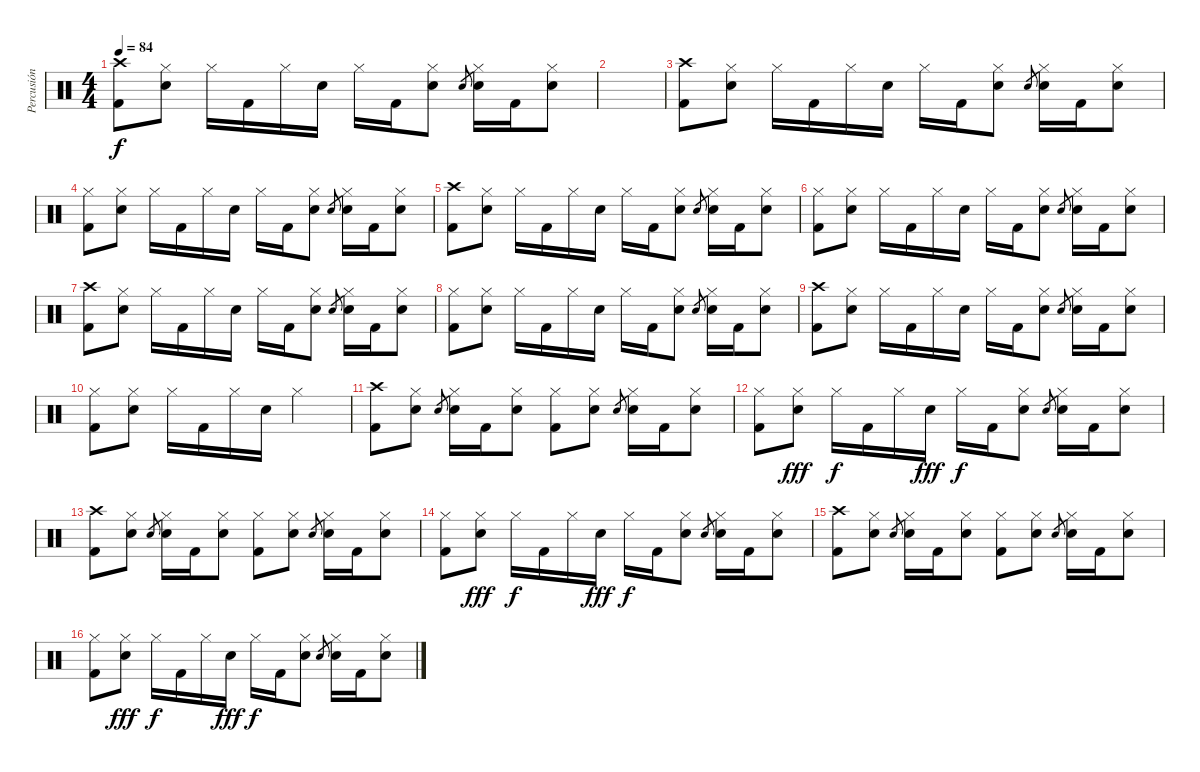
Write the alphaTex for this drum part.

\track ("Percusión" "Percusión") {instrument percussion}
\staff {score}
\articulation defaults
\ts (4 4)
\tempo 84
\clef neutral
\ks c
("Kick (hit) 2" "Crash high (hit)").8{dy f} ("Electric Snare (hit)" "Hi-Hat (closed)").8 "Hi-Hat (closed)".16 "Kick (hit) 2".16 "Hi-Hat (closed)".16 "Electric Snare (hit)".16 "Hi-Hat (closed)".16 "Kick (hit) 2".16 ("Electric Snare (hit)" "Hi-Hat (closed)").8 "Electric Snare (hit)".8{gr} ("Electric Snare (hit)" "Hi-Hat (closed)").16 "Kick (hit) 2".16 ("Electric Snare (hit)" "Hi-Hat (closed)").8 |
|
("Kick (hit) 2" "Crash high (hit)").8 ("Electric Snare (hit)" "Hi-Hat (closed)").8 "Hi-Hat (closed)".16 "Kick (hit) 2".16 "Hi-Hat (closed)".16 "Electric Snare (hit)".16 "Hi-Hat (closed)".16 "Kick (hit) 2".16 ("Electric Snare (hit)" "Hi-Hat (closed)").8 "Electric Snare (hit)".8{gr} ("Electric Snare (hit)" "Hi-Hat (closed)").16 "Kick (hit) 2".16 ("Electric Snare (hit)" "Hi-Hat (closed)").8 |
("Kick (hit) 2" "Hi-Hat (closed)").8 ("Electric Snare (hit)" "Hi-Hat (closed)").8 "Hi-Hat (closed)".16 "Kick (hit) 2".16 "Hi-Hat (closed)".16 "Electric Snare (hit)".16 "Hi-Hat (closed)".16 "Kick (hit) 2".16 ("Electric Snare (hit)" "Hi-Hat (closed)").8 "Electric Snare (hit)".8{gr} ("Electric Snare (hit)" "Hi-Hat (closed)").16 "Kick (hit) 2".16 ("Electric Snare (hit)" "Hi-Hat (closed)").8 |
("Kick (hit) 2" "Crash high (hit)").8 ("Electric Snare (hit)" "Hi-Hat (closed)").8 "Hi-Hat (closed)".16 "Kick (hit) 2".16 "Hi-Hat (closed)".16 "Electric Snare (hit)".16 "Hi-Hat (closed)".16 "Kick (hit) 2".16 ("Electric Snare (hit)" "Hi-Hat (closed)").8 "Electric Snare (hit)".8{gr} ("Electric Snare (hit)" "Hi-Hat (closed)").16 "Kick (hit) 2".16 ("Electric Snare (hit)" "Hi-Hat (closed)").8 |
("Kick (hit) 2" "Hi-Hat (closed)").8 ("Electric Snare (hit)" "Hi-Hat (closed)").8 "Hi-Hat (closed)".16 "Kick (hit) 2".16 "Hi-Hat (closed)".16 "Electric Snare (hit)".16 "Hi-Hat (closed)".16 "Kick (hit) 2".16 ("Electric Snare (hit)" "Hi-Hat (closed)").8 "Electric Snare (hit)".8{gr} ("Electric Snare (hit)" "Hi-Hat (closed)").16 "Kick (hit) 2".16 ("Electric Snare (hit)" "Hi-Hat (closed)").8 |
("Kick (hit) 2" "Crash high (hit)").8 ("Electric Snare (hit)" "Hi-Hat (closed)").8 "Hi-Hat (closed)".16 "Kick (hit) 2".16 "Hi-Hat (closed)".16 "Electric Snare (hit)".16 "Hi-Hat (closed)".16 "Kick (hit) 2".16 ("Electric Snare (hit)" "Hi-Hat (closed)").8 "Electric Snare (hit)".8{gr} ("Electric Snare (hit)" "Hi-Hat (closed)").16 "Kick (hit) 2".16 ("Electric Snare (hit)" "Hi-Hat (closed)").8 |
("Kick (hit) 2" "Hi-Hat (closed)").8 ("Electric Snare (hit)" "Hi-Hat (closed)").8 "Hi-Hat (closed)".16 "Kick (hit) 2".16 "Hi-Hat (closed)".16 "Electric Snare (hit)".16 "Hi-Hat (closed)".16 "Kick (hit) 2".16 ("Electric Snare (hit)" "Hi-Hat (closed)").8 "Electric Snare (hit)".8{gr} ("Electric Snare (hit)" "Hi-Hat (closed)").16 "Kick (hit) 2".16 ("Electric Snare (hit)" "Hi-Hat (closed)").8 |
("Kick (hit) 2" "Crash high (hit)").8 ("Electric Snare (hit)" "Hi-Hat (closed)").8 "Hi-Hat (closed)".16 "Kick (hit) 2".16 "Hi-Hat (closed)".16 "Electric Snare (hit)".16 "Hi-Hat (closed)".16 "Kick (hit) 2".16 ("Electric Snare (hit)" "Hi-Hat (closed)").8 "Electric Snare (hit)".8{gr} ("Electric Snare (hit)" "Hi-Hat (closed)").16 "Kick (hit) 2".16 ("Electric Snare (hit)" "Hi-Hat (closed)").8 |
("Kick (hit) 2" "Hi-Hat (closed)").8 ("Electric Snare (hit)" "Hi-Hat (closed)").8 "Hi-Hat (closed)".16 "Kick (hit) 2".16 "Hi-Hat (closed)".16 "Electric Snare (hit)".16 "Hi-Hat (closed)".2 |
("Kick (hit) 2" "Crash high (hit)").8 ("Electric Snare (hit)" "Hi-Hat (closed)").8 "Electric Snare (hit)".8{gr} ("Electric Snare (hit)" "Hi-Hat (closed)").16 "Kick (hit) 2".16 ("Electric Snare (hit)" "Hi-Hat (closed)").8 ("Kick (hit) 2" "Hi-Hat (closed)").8 ("Electric Snare (hit)" "Hi-Hat (closed)").8 "Electric Snare (hit)".8{gr} ("Electric Snare (hit)" "Hi-Hat (closed)").16 "Kick (hit) 2".16 ("Electric Snare (hit)" "Hi-Hat (closed)").8 |
("Kick (hit) 2" "Hi-Hat (closed)").8 ("Electric Snare (hit)" "Hi-Hat (closed)").8{dy fff} "Hi-Hat (closed)".16{dy f} "Kick (hit) 2".16 "Hi-Hat (closed)".16 "Electric Snare (hit)".16{dy fff} "Hi-Hat (closed)".16{dy f} "Kick (hit) 2".16 ("Electric Snare (hit)" "Hi-Hat (closed)").8 "Electric Snare (hit)".8{gr} ("Electric Snare (hit)" "Hi-Hat (closed)").16 "Kick (hit) 2".16 ("Electric Snare (hit)" "Hi-Hat (closed)").8 |
("Kick (hit) 2" "Crash high (hit)").8 ("Electric Snare (hit)" "Hi-Hat (closed)").8 "Electric Snare (hit)".8{gr} ("Electric Snare (hit)" "Hi-Hat (closed)").16 "Kick (hit) 2".16 ("Electric Snare (hit)" "Hi-Hat (closed)").8 ("Kick (hit) 2" "Hi-Hat (closed)").8 ("Electric Snare (hit)" "Hi-Hat (closed)").8 "Electric Snare (hit)".8{gr} ("Electric Snare (hit)" "Hi-Hat (closed)").16 "Kick (hit) 2".16 ("Electric Snare (hit)" "Hi-Hat (closed)").8 |
("Kick (hit) 2" "Hi-Hat (closed)").8 ("Electric Snare (hit)" "Hi-Hat (closed)").8{dy fff} "Hi-Hat (closed)".16{dy f} "Kick (hit) 2".16 "Hi-Hat (closed)".16 "Electric Snare (hit)".16{dy fff} "Hi-Hat (closed)".16{dy f} "Kick (hit) 2".16 ("Electric Snare (hit)" "Hi-Hat (closed)").8 "Electric Snare (hit)".8{gr} ("Electric Snare (hit)" "Hi-Hat (closed)").16 "Kick (hit) 2".16 ("Electric Snare (hit)" "Hi-Hat (closed)").8 |
("Kick (hit) 2" "Crash high (hit)").8 ("Electric Snare (hit)" "Hi-Hat (closed)").8 "Electric Snare (hit)".8{gr} ("Electric Snare (hit)" "Hi-Hat (closed)").16 "Kick (hit) 2".16 ("Electric Snare (hit)" "Hi-Hat (closed)").8 ("Kick (hit) 2" "Hi-Hat (closed)").8 ("Electric Snare (hit)" "Hi-Hat (closed)").8 "Electric Snare (hit)".8{gr} ("Electric Snare (hit)" "Hi-Hat (closed)").16 "Kick (hit) 2".16 ("Electric Snare (hit)" "Hi-Hat (closed)").8 |
("Kick (hit) 2" "Hi-Hat (closed)").8 ("Electric Snare (hit)" "Hi-Hat (closed)").8{dy fff} "Hi-Hat (closed)".16{dy f} "Kick (hit) 2".16 "Hi-Hat (closed)".16 "Electric Snare (hit)".16{dy fff} "Hi-Hat (closed)".16{dy f} "Kick (hit) 2".16 ("Electric Snare (hit)" "Hi-Hat (closed)").8 "Electric Snare (hit)".8{gr} ("Electric Snare (hit)" "Hi-Hat (closed)").16 "Kick (hit) 2".16 ("Electric Snare (hit)" "Hi-Hat (closed)").8
